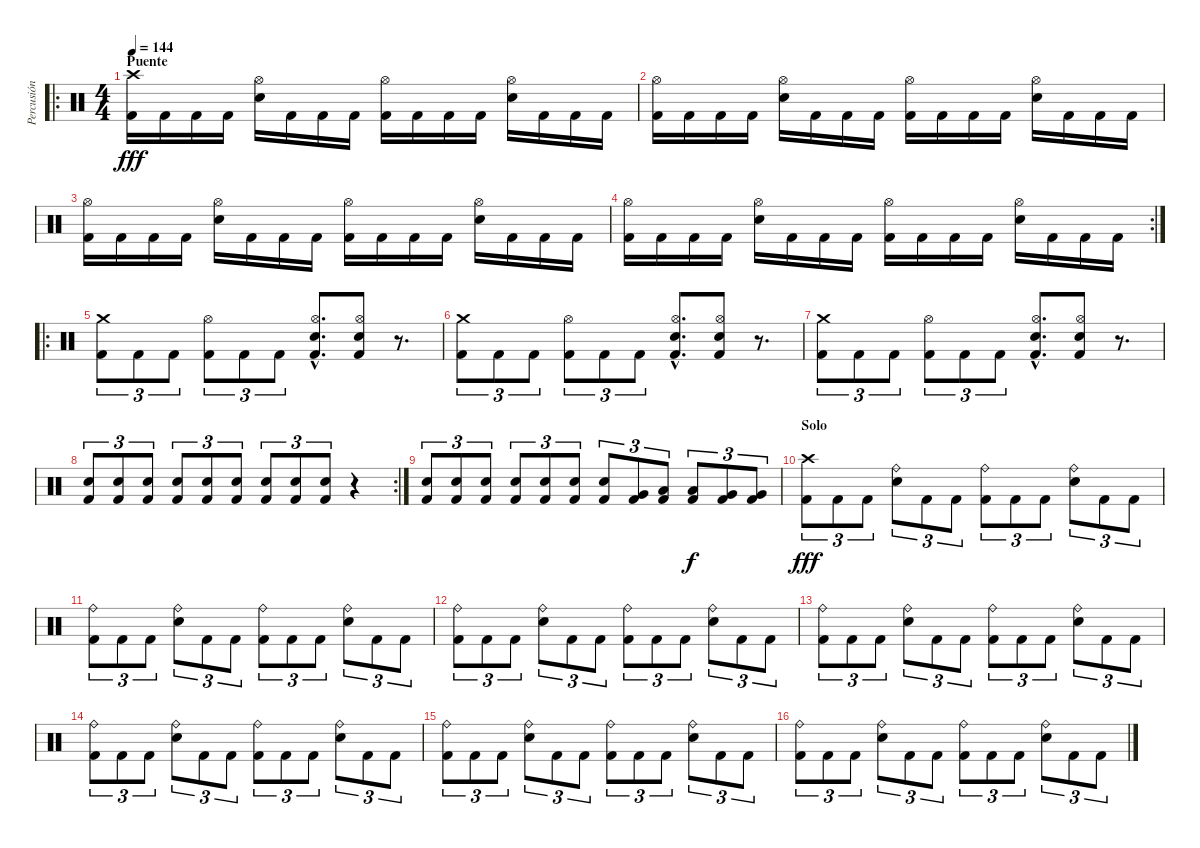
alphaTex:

\track ("Percusión" "Percusión") {instrument percussion}
\staff {score}
\articulation defaults
\ro
\ts (4 4)
\section ("" "Puente")
\tempo 144
\clef neutral
\ks c
("Crash high (hit)" "Kick (hit) 2").16{dy fff} "Kick (hit) 2".16 "Kick (hit) 2".16 "Kick (hit) 2".16 ("Hi-Hat (open)" "Electric Snare (hit)").16 "Kick (hit) 2".16 "Kick (hit) 2".16 "Kick (hit) 2".16 ("Hi-Hat (open)" "Kick (hit) 2").16 "Kick (hit) 2".16 "Kick (hit) 2".16 "Kick (hit) 2".16 ("Hi-Hat (open)" "Electric Snare (hit)").16 "Kick (hit) 2".16 "Kick (hit) 2".16 "Kick (hit) 2".16 |
("Hi-Hat (open)" "Kick (hit) 2").16 "Kick (hit) 2".16 "Kick (hit) 2".16 "Kick (hit) 2".16 ("Hi-Hat (open)" "Electric Snare (hit)").16 "Kick (hit) 2".16 "Kick (hit) 2".16 "Kick (hit) 2".16 ("Hi-Hat (open)" "Kick (hit) 2").16 "Kick (hit) 2".16 "Kick (hit) 2".16 "Kick (hit) 2".16 ("Hi-Hat (open)" "Electric Snare (hit)").16 "Kick (hit) 2".16 "Kick (hit) 2".16 "Kick (hit) 2".16 |
("Hi-Hat (open)" "Kick (hit) 2").16 "Kick (hit) 2".16 "Kick (hit) 2".16 "Kick (hit) 2".16 ("Hi-Hat (open)" "Electric Snare (hit)").16 "Kick (hit) 2".16 "Kick (hit) 2".16 "Kick (hit) 2".16 ("Hi-Hat (open)" "Kick (hit) 2").16 "Kick (hit) 2".16 "Kick (hit) 2".16 "Kick (hit) 2".16 ("Hi-Hat (open)" "Electric Snare (hit)").16 "Kick (hit) 2".16 "Kick (hit) 2".16 "Kick (hit) 2".16 |
\rc 2
("Hi-Hat (open)" "Kick (hit) 2").16 "Kick (hit) 2".16 "Kick (hit) 2".16 "Kick (hit) 2".16 ("Hi-Hat (open)" "Electric Snare (hit)").16 "Kick (hit) 2".16 "Kick (hit) 2".16 "Kick (hit) 2".16 ("Hi-Hat (open)" "Kick (hit) 2").16 "Kick (hit) 2".16 "Kick (hit) 2".16 "Kick (hit) 2".16 ("Hi-Hat (open)" "Electric Snare (hit)").16 "Kick (hit) 2".16 "Kick (hit) 2".16 "Kick (hit) 2".16 |
\ro
("Crash medium (hit)" "Kick (hit) 2").8{tu (3 2)} "Kick (hit) 2".8{tu (3 2)} "Kick (hit) 2".8{tu (3 2)} ("Hi-Hat (open)" "Kick (hit) 2").8{tu (3 2)} "Kick (hit) 2".8{tu (3 2)} "Kick (hit) 2".8{tu (3 2)} ("Hi-Hat (open)"{hac} "Snare (hit) 2"{hac} "Kick (hit) 2"{hac}).8{d} ("Hi-Hat (open)" "Electric Snare (hit)" "Kick (hit) 2").8 r.8{d} |
("Crash medium (hit)" "Kick (hit) 2").8{tu (3 2)} "Kick (hit) 2".8{tu (3 2)} "Kick (hit) 2".8{tu (3 2)} ("Hi-Hat (open)" "Kick (hit) 2").8{tu (3 2)} "Kick (hit) 2".8{tu (3 2)} "Kick (hit) 2".8{tu (3 2)} ("Hi-Hat (open)"{hac} "Snare (hit) 2"{hac} "Kick (hit) 2"{hac}).8{d} ("Hi-Hat (open)" "Electric Snare (hit)" "Kick (hit) 2").8 r.8{d} |
("Crash medium (hit)" "Kick (hit) 2").8{tu (3 2)} "Kick (hit) 2".8{tu (3 2)} "Kick (hit) 2".8{tu (3 2)} ("Hi-Hat (open)" "Kick (hit) 2").8{tu (3 2)} "Kick (hit) 2".8{tu (3 2)} "Kick (hit) 2".8{tu (3 2)} ("Hi-Hat (open)"{hac} "Snare (hit) 2"{hac} "Kick (hit) 2"{hac}).8{d} ("Hi-Hat (open)" "Electric Snare (hit)" "Kick (hit) 2").8 r.8{d} |
\rc 2
("Snare (hit) 2" "Kick (hit) 2").8{tu (3 2)} ("Snare (hit) 2" "Kick (hit) 2").8{tu (3 2)} ("Snare (hit) 2" "Kick (hit) 2").8{tu (3 2)} ("Snare (hit) 2" "Kick (hit) 2").8{tu (3 2)} ("Snare (hit) 2" "Kick (hit) 2").8{tu (3 2)} ("Snare (hit) 2" "Kick (hit) 2").8{tu (3 2)} ("Snare (hit) 2" "Kick (hit) 2").8{tu (3 2)} ("Snare (hit) 2" "Kick (hit) 2").8{tu (3 2)} ("Snare (hit) 2" "Kick (hit) 2").8{tu (3 2)} r.4 |
("Snare (hit) 2" "Kick (hit) 2").8{tu (3 2)} ("Snare (hit) 2" "Kick (hit) 2").8{tu (3 2)} ("Snare (hit) 2" "Kick (hit) 2").8{tu (3 2)} ("Snare (hit) 2" "Kick (hit) 2").8{tu (3 2)} ("Snare (hit) 2" "Kick (hit) 2").8{tu (3 2)} ("Snare (hit) 2" "Kick (hit) 2").8{tu (3 2)} ("Snare (hit) 2" "Kick (hit) 2").8{tu (3 2)} ("Very Low Tom (hit)" "Kick (hit) 2").8{tu (3 2)} ("Low Tom (hit)" "Kick (hit) 2").8{tu (3 2)} ("Low Tom (hit)" "Kick (hit) 2").8{tu (3 2) dy f} ("Very Low Tom (hit)" "Kick (hit) 2").8{tu (3 2)} ("Very Low Tom (hit)" "Kick (hit) 2").8{tu (3 2)} |
\section ("" "Solo")
("Crash high (hit)" "Kick (hit) 2").8{tu (3 2) dy fff} "Kick (hit) 2".8{tu (3 2)} "Kick (hit) 2".8{tu (3 2)} ("Ride (bell)" "Snare (hit) 2").8{tu (3 2)} "Kick (hit) 2".8{tu (3 2)} "Kick (hit) 2".8{tu (3 2)} ("Ride (bell)" "Kick (hit) 2").8{tu (3 2)} "Kick (hit) 2".8{tu (3 2)} "Kick (hit) 2".8{tu (3 2)} ("Ride (bell)" "Snare (hit) 2").8{tu (3 2)} "Kick (hit) 2".8{tu (3 2)} "Kick (hit) 2".8{tu (3 2)} |
("Ride (bell)" "Kick (hit) 2").8{tu (3 2)} "Kick (hit) 2".8{tu (3 2)} "Kick (hit) 2".8{tu (3 2)} ("Ride (bell)" "Snare (hit) 2").8{tu (3 2)} "Kick (hit) 2".8{tu (3 2)} "Kick (hit) 2".8{tu (3 2)} ("Ride (bell)" "Kick (hit) 2").8{tu (3 2)} "Kick (hit) 2".8{tu (3 2)} "Kick (hit) 2".8{tu (3 2)} ("Ride (bell)" "Snare (hit) 2").8{tu (3 2)} "Kick (hit) 2".8{tu (3 2)} "Kick (hit) 2".8{tu (3 2)} |
("Ride (bell)" "Kick (hit) 2").8{tu (3 2)} "Kick (hit) 2".8{tu (3 2)} "Kick (hit) 2".8{tu (3 2)} ("Ride (bell)" "Snare (hit) 2").8{tu (3 2)} "Kick (hit) 2".8{tu (3 2)} "Kick (hit) 2".8{tu (3 2)} ("Ride (bell)" "Kick (hit) 2").8{tu (3 2)} "Kick (hit) 2".8{tu (3 2)} "Kick (hit) 2".8{tu (3 2)} ("Ride (bell)" "Snare (hit) 2").8{tu (3 2)} "Kick (hit) 2".8{tu (3 2)} "Kick (hit) 2".8{tu (3 2)} |
("Ride (bell)" "Kick (hit) 2").8{tu (3 2)} "Kick (hit) 2".8{tu (3 2)} "Kick (hit) 2".8{tu (3 2)} ("Ride (bell)" "Snare (hit) 2").8{tu (3 2)} "Kick (hit) 2".8{tu (3 2)} "Kick (hit) 2".8{tu (3 2)} ("Ride (bell)" "Kick (hit) 2").8{tu (3 2)} "Kick (hit) 2".8{tu (3 2)} "Kick (hit) 2".8{tu (3 2)} ("Ride (bell)" "Snare (hit) 2").8{tu (3 2)} "Kick (hit) 2".8{tu (3 2)} "Kick (hit) 2".8{tu (3 2)} |
("Ride (bell)" "Kick (hit) 2").8{tu (3 2)} "Kick (hit) 2".8{tu (3 2)} "Kick (hit) 2".8{tu (3 2)} ("Ride (bell)" "Snare (hit) 2").8{tu (3 2)} "Kick (hit) 2".8{tu (3 2)} "Kick (hit) 2".8{tu (3 2)} ("Ride (bell)" "Kick (hit) 2").8{tu (3 2)} "Kick (hit) 2".8{tu (3 2)} "Kick (hit) 2".8{tu (3 2)} ("Ride (bell)" "Snare (hit) 2").8{tu (3 2)} "Kick (hit) 2".8{tu (3 2)} "Kick (hit) 2".8{tu (3 2)} |
("Ride (bell)" "Kick (hit) 2").8{tu (3 2)} "Kick (hit) 2".8{tu (3 2)} "Kick (hit) 2".8{tu (3 2)} ("Ride (bell)" "Snare (hit) 2").8{tu (3 2)} "Kick (hit) 2".8{tu (3 2)} "Kick (hit) 2".8{tu (3 2)} ("Ride (bell)" "Kick (hit) 2").8{tu (3 2)} "Kick (hit) 2".8{tu (3 2)} "Kick (hit) 2".8{tu (3 2)} ("Ride (bell)" "Snare (hit) 2").8{tu (3 2)} "Kick (hit) 2".8{tu (3 2)} "Kick (hit) 2".8{tu (3 2)} |
("Ride (bell)" "Kick (hit) 2").8{tu (3 2)} "Kick (hit) 2".8{tu (3 2)} "Kick (hit) 2".8{tu (3 2)} ("Ride (bell)" "Snare (hit) 2").8{tu (3 2)} "Kick (hit) 2".8{tu (3 2)} "Kick (hit) 2".8{tu (3 2)} ("Ride (bell)" "Kick (hit) 2").8{tu (3 2)} "Kick (hit) 2".8{tu (3 2)} "Kick (hit) 2".8{tu (3 2)} ("Ride (bell)" "Snare (hit) 2").8{tu (3 2)} "Kick (hit) 2".8{tu (3 2)} "Kick (hit) 2".8{tu (3 2)}
